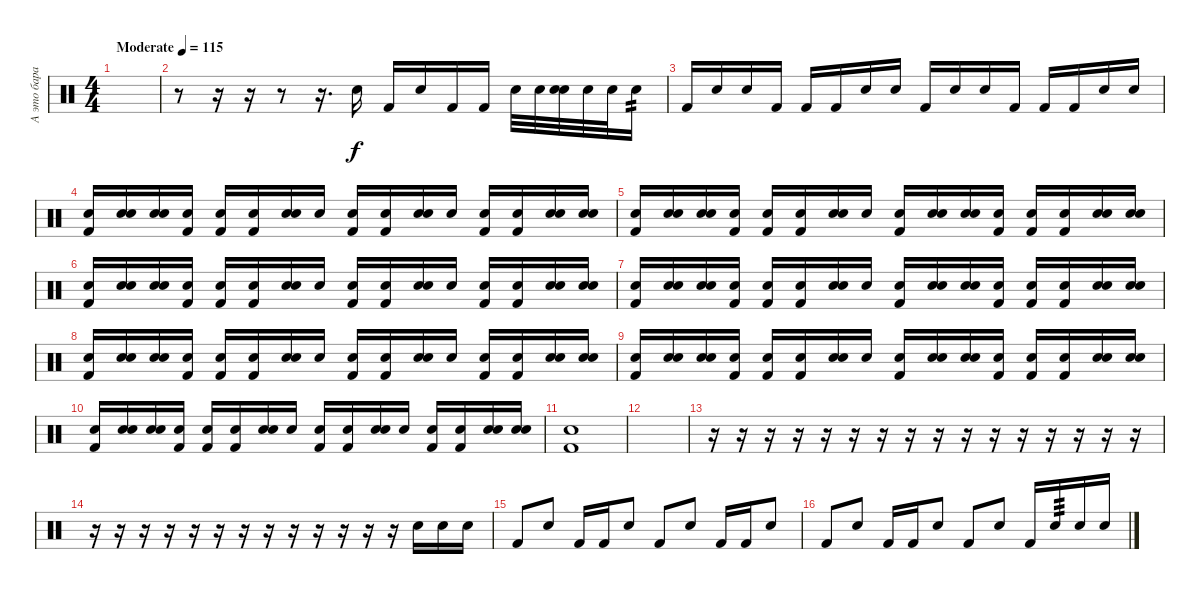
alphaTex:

\track ("А это барабаны" "А это бара") {instrument percussion}
\staff {score}
\articulation defaults
\ts (4 4)
\tempo (115 "Moderate")
\clef neutral
\ks c
|
r.8 r.16 r.16 r.8 r.16{d} "Snare (hit) 2".16 "Kick (hit) 2".16 "Snare (hit) 2".16 "Kick (hit) 2".16 "Kick (hit) 2".16 "Snare (hit)".32 "Snare (hit) 2".32 ("Snare (hit) 2" "Snare (hit)").32 "Snare (hit) 2".32 "Snare (hit)".32 "Snare (hit) 2".16{tp 2} |
"Kick (hit) 2".16 "Snare (hit)".16 "Snare (hit) 2".16 "Kick (hit) 2".16 "Kick (hit) 2".16 "Kick (hit) 2".16 "Snare (hit) 2".16 "Snare (hit)".16 "Kick (hit) 2".16 "Snare (hit)".16 "Snare (hit) 2".16 "Kick (hit) 2".16 "Kick (hit) 2".16 "Kick (hit) 2".16 "Snare (hit) 2".16 "Snare (hit)".16 |
("Snare (hit)" "Kick (hit) 2").16 ("Snare (hit)" "Snare (hit)").16 ("Snare (hit)" "Snare (hit) 2").16 ("Snare (hit)" "Kick (hit) 2").16 ("Snare (hit)" "Kick (hit) 2").16 ("Snare (hit)" "Kick (hit) 2").16 ("Snare (hit)" "Snare (hit) 2").16 "Snare (hit)".16 ("Snare (hit)" "Kick (hit) 2").16 ("Snare (hit)" "Kick (hit) 2").16 ("Snare (hit)" "Snare (hit) 2").16 "Snare (hit)".16 ("Snare (hit)" "Kick (hit) 2").16 ("Snare (hit)" "Kick (hit) 2").16 ("Snare (hit)" "Snare (hit) 2").16 ("Snare (hit)" "Snare (hit)").16 |
("Snare (hit)" "Kick (hit) 2").16 ("Snare (hit)" "Snare (hit)").16 ("Snare (hit)" "Snare (hit) 2").16 ("Snare (hit)" "Kick (hit) 2").16 ("Snare (hit)" "Kick (hit) 2").16 ("Snare (hit)" "Kick (hit) 2").16 ("Snare (hit)" "Snare (hit) 2").16 "Snare (hit)".16 ("Snare (hit)" "Kick (hit) 2").16 ("Snare (hit)" "Snare (hit)").16 ("Snare (hit)" "Snare (hit) 2").16 ("Snare (hit)" "Kick (hit) 2").16 ("Snare (hit)" "Kick (hit) 2").16 ("Snare (hit)" "Kick (hit) 2").16 ("Snare (hit)" "Snare (hit) 2").16 ("Snare (hit)" "Snare (hit)").16 |
("Snare (hit)" "Kick (hit) 2").16 ("Snare (hit)" "Snare (hit)").16 ("Snare (hit)" "Snare (hit) 2").16 ("Snare (hit)" "Kick (hit) 2").16 ("Snare (hit)" "Kick (hit) 2").16 ("Snare (hit)" "Kick (hit) 2").16 ("Snare (hit)" "Snare (hit) 2").16 "Snare (hit)".16 ("Snare (hit)" "Kick (hit) 2").16 ("Snare (hit)" "Kick (hit) 2").16 ("Snare (hit)" "Snare (hit) 2").16 "Snare (hit)".16 ("Snare (hit)" "Kick (hit) 2").16 ("Snare (hit)" "Kick (hit) 2").16 ("Snare (hit)" "Snare (hit) 2").16 ("Snare (hit)" "Snare (hit)").16 |
("Snare (hit)" "Kick (hit) 2").16 ("Snare (hit)" "Snare (hit)").16 ("Snare (hit)" "Snare (hit) 2").16 ("Snare (hit)" "Kick (hit) 2").16 ("Snare (hit)" "Kick (hit) 2").16 ("Snare (hit)" "Kick (hit) 2").16 ("Snare (hit)" "Snare (hit) 2").16 "Snare (hit)".16 ("Snare (hit)" "Kick (hit) 2").16 ("Snare (hit)" "Snare (hit)").16 ("Snare (hit)" "Snare (hit) 2").16 ("Snare (hit)" "Kick (hit) 2").16 ("Snare (hit)" "Kick (hit) 2").16 ("Snare (hit)" "Kick (hit) 2").16 ("Snare (hit)" "Snare (hit) 2").16 ("Snare (hit)" "Snare (hit)").16 |
("Snare (hit)" "Kick (hit) 2").16 ("Snare (hit)" "Snare (hit)").16 ("Snare (hit)" "Snare (hit) 2").16 ("Snare (hit)" "Kick (hit) 2").16 ("Snare (hit)" "Kick (hit) 2").16 ("Snare (hit)" "Kick (hit) 2").16 ("Snare (hit)" "Snare (hit) 2").16 "Snare (hit)".16 ("Snare (hit)" "Kick (hit) 2").16 ("Snare (hit)" "Kick (hit) 2").16 ("Snare (hit)" "Snare (hit) 2").16 "Snare (hit)".16 ("Snare (hit)" "Kick (hit) 2").16 ("Snare (hit)" "Kick (hit) 2").16 ("Snare (hit)" "Snare (hit) 2").16 ("Snare (hit)" "Snare (hit)").16 |
("Snare (hit)" "Kick (hit) 2").16 ("Snare (hit)" "Snare (hit)").16 ("Snare (hit)" "Snare (hit) 2").16 ("Snare (hit)" "Kick (hit) 2").16 ("Snare (hit)" "Kick (hit) 2").16 ("Snare (hit)" "Kick (hit) 2").16 ("Snare (hit)" "Snare (hit) 2").16 "Snare (hit)".16 ("Snare (hit)" "Kick (hit) 2").16 ("Snare (hit)" "Snare (hit)").16 ("Snare (hit)" "Snare (hit) 2").16 ("Snare (hit)" "Kick (hit) 2").16 ("Snare (hit)" "Kick (hit) 2").16 ("Snare (hit)" "Kick (hit) 2").16 ("Snare (hit)" "Snare (hit) 2").16 ("Snare (hit)" "Snare (hit)").16 |
("Snare (hit)" "Kick (hit) 2").16 ("Snare (hit)" "Snare (hit)").16 ("Snare (hit)" "Snare (hit) 2").16 ("Snare (hit)" "Kick (hit) 2").16 ("Snare (hit)" "Kick (hit) 2").16 ("Snare (hit)" "Kick (hit) 2").16 ("Snare (hit)" "Snare (hit) 2").16 "Snare (hit)".16 ("Snare (hit)" "Kick (hit) 2").16 ("Snare (hit)" "Kick (hit) 2").16 ("Snare (hit)" "Snare (hit) 2").16 "Snare (hit)".16 ("Snare (hit)" "Kick (hit) 2").16 ("Snare (hit)" "Kick (hit) 2").16 ("Snare (hit)" "Snare (hit) 2").16 ("Snare (hit)" "Snare (hit)").16 |
("Snare (hit)" "Kick (hit) 2").1 |
|
r.16 r.16 r.16 r.16 r.16 r.16 r.16 r.16 r.16 r.16 r.16 r.16 r.16 r.16 r.16 r.16 |
r.16 r.16 r.16 r.16 r.16 r.16 r.16 r.16 r.16 r.16 r.16 r.16 r.16 "Snare (hit) 2".16 "Snare (hit) 2".16 "Snare (hit) 2".16 |
"Kick (hit) 2".8 "Snare (hit) 2".8 "Kick (hit) 2".16 "Kick (hit) 2".16 "Snare (hit) 2".8 "Kick (hit) 2".8 "Snare (hit) 2".8 "Kick (hit) 2".16 "Kick (hit) 2".16 "Snare (hit) 2".8 |
"Kick (hit) 2".8 "Snare (hit) 2".8 "Kick (hit) 2".16 "Kick (hit) 2".16 "Snare (hit) 2".8 "Kick (hit) 2".8 "Snare (hit) 2".8 "Kick (hit) 2".16 "Snare (hit) 2".16{tp 3} "Snare (hit) 2".16 "Snare (hit) 2".16
